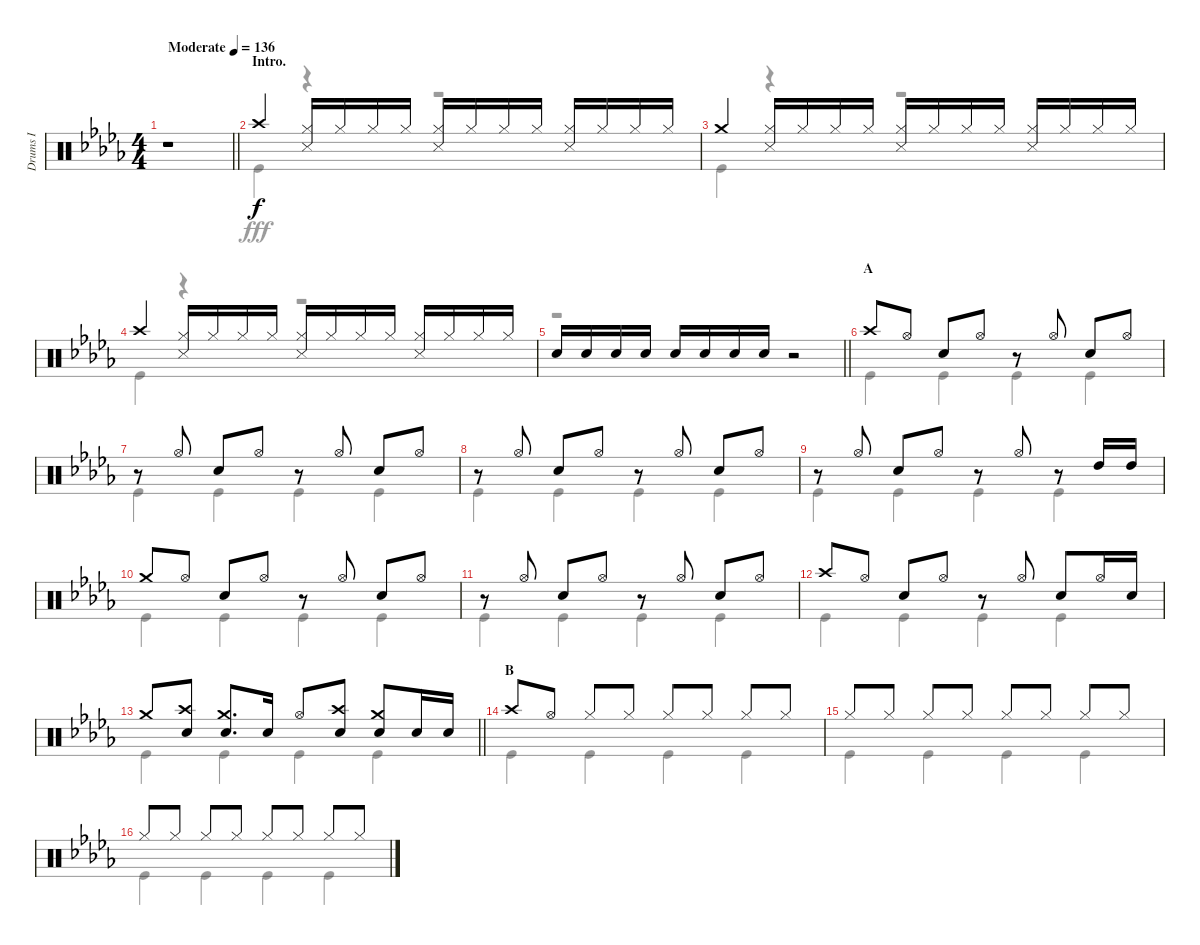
\track ("Drums I" "Drums I") {instrument percussion}
\staff {score}
\articulation defaults
\voice
\ts (4 4)
\tempo (136 "Moderate")
\clef neutral
\barLineRight lightlight
\ks db
r.1{dy f} |
\section ("" "Intro.")
"Crash high (hit)".4 ("Hi-Hat (closed)" "Snare (side stick) 3").16 "Hi-Hat (closed)".16 "Hi-Hat (closed)".16 "Hi-Hat (closed)".16 ("Hi-Hat (closed)" "Snare (side stick) 3").16 "Hi-Hat (closed)".16 "Hi-Hat (closed)".16 "Hi-Hat (closed)".16 ("Hi-Hat (closed)" "Snare (side stick) 3").16 "Hi-Hat (closed)".16 "Hi-Hat (closed)".16 "Hi-Hat (closed)".16 |
"Crash medium (hit)".4 ("Hi-Hat (closed)" "Snare (side stick) 3").16 "Hi-Hat (closed)".16 "Hi-Hat (closed)".16 "Hi-Hat (closed)".16 ("Hi-Hat (closed)" "Snare (side stick) 3").16 "Hi-Hat (closed)".16 "Hi-Hat (closed)".16 "Hi-Hat (closed)".16 ("Hi-Hat (closed)" "Snare (side stick) 3").16 "Hi-Hat (closed)".16 "Hi-Hat (closed)".16 "Hi-Hat (closed)".16 |
"Crash high (hit)".4 ("Hi-Hat (closed)" "Snare (side stick) 3").16 "Hi-Hat (closed)".16 "Hi-Hat (closed)".16 "Hi-Hat (closed)".16 ("Hi-Hat (closed)" "Snare (side stick) 3").16 "Hi-Hat (closed)".16 "Hi-Hat (closed)".16 "Hi-Hat (closed)".16 ("Hi-Hat (closed)" "Snare (side stick) 3").16 "Hi-Hat (closed)".16 "Hi-Hat (closed)".16 "Hi-Hat (closed)".16 |
\barLineRight lightlight "Snare (hit) 2".16 "Snare (hit) 2".16 "Snare (hit) 2".16 "Snare (hit) 2".16 "Snare (hit) 2".16 "Snare (hit) 2".16 "Snare (hit) 2".16 "Snare (hit) 2".16
r.2 |
\section ("" "A")
"Crash high (hit)".8 "Hi-Hat (open)".8 "Snare (hit) 2".8 "Hi-Hat (open)".8 r.8 "Hi-Hat (open)".8 "Snare (hit) 2".8 "Hi-Hat (open)".8 |
r.8 "Hi-Hat (open)".8 "Snare (hit) 2".8 "Hi-Hat (open)".8 r.8 "Hi-Hat (open)".8 "Snare (hit) 2".8 "Hi-Hat (open)".8 |
r.8 "Hi-Hat (open)".8 "Snare (hit) 2".8 "Hi-Hat (open)".8 r.8 "Hi-Hat (open)".8 "Snare (hit) 2".8 "Hi-Hat (open)".8 |
r.8 "Hi-Hat (open)".8 "Snare (hit) 2".8 "Hi-Hat (open)".8 r.8 "Hi-Hat (open)".8 r.8 "High Tom (hit)".16 "High Tom (hit)".16 |
"Crash medium (hit)".8 "Hi-Hat (open)".8 "Snare (hit) 2".8 "Hi-Hat (open)".8 r.8 "Hi-Hat (open)".8 "Snare (hit) 2".8 "Hi-Hat (open)".8 |
r.8 "Hi-Hat (open)".8 "Snare (hit) 2".8 "Hi-Hat (open)".8 r.8 "Hi-Hat (open)".8 "Snare (hit) 2".8 "Hi-Hat (open)".8 |
"Crash high (hit)".8 "Hi-Hat (open)".8 "Snare (hit) 2".8 "Hi-Hat (open)".8 r.8 "Hi-Hat (open)".8 "Snare (hit) 2".8 "Hi-Hat (open)".16 "Snare (hit) 2".16 |
\barLineRight lightlight "Crash medium (hit)".8
("Crash high (hit)" "Snare (hit) 2").8 ("Crash medium (hit)" "Snare (hit) 2").8{d} "Snare (hit) 2".16 "Hi-Hat (open)".8 ("Crash high (hit)" "Snare (hit) 2").8 ("Crash medium (hit)" "Snare (hit) 2").8 "Snare (hit) 2".16 "Snare (hit) 2".16 |
\section ("" "B")
"Crash high (hit)".8 "Hi-Hat (open)".8 "Hi-Hat (closed)".8 "Hi-Hat (closed)".8 "Hi-Hat (closed)".8 "Hi-Hat (closed)".8 "Hi-Hat (closed)".8 "Hi-Hat (closed)".8 |
"Hi-Hat (closed)".8 "Hi-Hat (closed)".8 "Hi-Hat (closed)".8 "Hi-Hat (closed)".8 "Hi-Hat (closed)".8 "Hi-Hat (closed)".8 "Hi-Hat (closed)".8 "Hi-Hat (closed)".8 |
"Hi-Hat (closed)".8 "Hi-Hat (closed)".8 "Hi-Hat (closed)".8 "Hi-Hat (closed)".8 "Hi-Hat (closed)".8 "Hi-Hat (closed)".8 "Hi-Hat (closed)".8 "Hi-Hat (closed)".8
\voice
\clef neutral
\ottava regular
\simile none
\barLineRight lightlight
\ks db
r.1{dy fff} |
"Kick (hit)".4 r.4 r.2 |
"Kick (hit)".4 r.4 r.2 |
"Kick (hit)".4 r.4 r.2 |
\barLineRight lightlight
r.1 |
"Kick (hit)".4 "Kick (hit)".4 "Kick (hit)".4 "Kick (hit)".4 |
"Kick (hit)".4 "Kick (hit)".4 "Kick (hit)".4 "Kick (hit)".4 |
"Kick (hit)".4 "Kick (hit)".4 "Kick (hit)".4 "Kick (hit)".4 |
"Kick (hit)".4 "Kick (hit)".4 "Kick (hit)".4 "Kick (hit)".4 |
"Kick (hit)".4 "Kick (hit)".4 "Kick (hit)".4 "Kick (hit)".4 |
"Kick (hit)".4 "Kick (hit)".4 "Kick (hit)".4 "Kick (hit)".4 |
"Kick (hit)".4 "Kick (hit)".4 "Kick (hit)".4 "Kick (hit)".4 |
\barLineRight lightlight "Kick (hit)".4 "Kick (hit)".4 "Kick (hit)".4 "Kick (hit)".4
|
"Kick (hit)".4 "Kick (hit)".4 "Kick (hit)".4 "Kick (hit)".4 |
"Kick (hit)".4 "Kick (hit)".4 "Kick (hit)".4 "Kick (hit)".4 |
"Kick (hit)".4 "Kick (hit)".4 "Kick (hit)".4 "Kick (hit)".4
